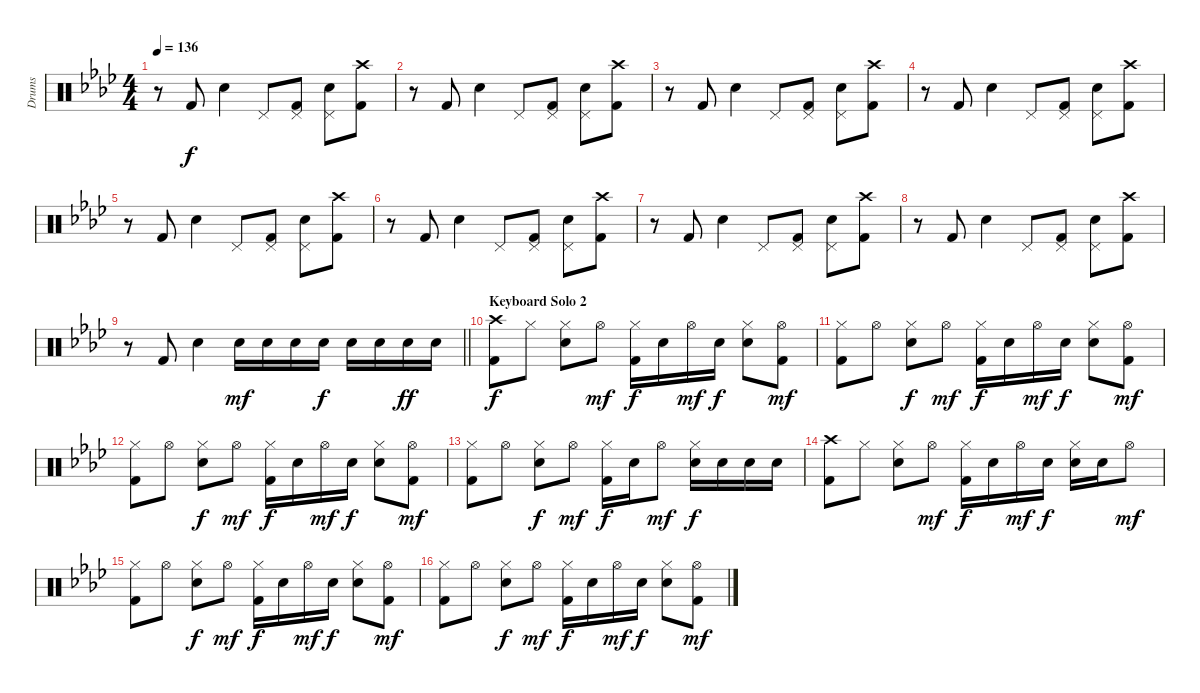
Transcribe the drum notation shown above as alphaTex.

\track ("Drums" "Drums") {instrument percussion}
\staff {score}
\articulation defaults
\ts (4 4)
\tempo 136
\clef neutral
\ks ab
r.8{dy f} "Kick (hit) 2".8 "Electric Snare (hit)".4 "Pedal Hi-Hat (hit)".8 ("Pedal Hi-Hat (hit)" "Kick (hit) 2").8 ("Pedal Hi-Hat (hit)" "Electric Snare (hit)").8 ("Crash high (hit)" "Kick (hit) 2").8 |
r.8 "Kick (hit) 2".8 "Electric Snare (hit)".4 "Pedal Hi-Hat (hit)".8 ("Pedal Hi-Hat (hit)" "Kick (hit) 2").8 ("Pedal Hi-Hat (hit)" "Electric Snare (hit)").8 ("Crash high (hit)" "Kick (hit) 2").8 |
r.8 "Kick (hit) 2".8 "Electric Snare (hit)".4 "Pedal Hi-Hat (hit)".8 ("Pedal Hi-Hat (hit)" "Kick (hit) 2").8 ("Pedal Hi-Hat (hit)" "Electric Snare (hit)").8 ("Crash high (hit)" "Kick (hit) 2").8 |
r.8 "Kick (hit) 2".8 "Electric Snare (hit)".4 "Pedal Hi-Hat (hit)".8 ("Pedal Hi-Hat (hit)" "Kick (hit) 2").8 ("Pedal Hi-Hat (hit)" "Electric Snare (hit)").8 ("Crash high (hit)" "Kick (hit) 2").8 |
r.8 "Kick (hit) 2".8 "Electric Snare (hit)".4 "Pedal Hi-Hat (hit)".8 ("Pedal Hi-Hat (hit)" "Kick (hit) 2").8 ("Pedal Hi-Hat (hit)" "Electric Snare (hit)").8 ("Crash high (hit)" "Kick (hit) 2").8 |
r.8 "Kick (hit) 2".8 "Electric Snare (hit)".4 "Pedal Hi-Hat (hit)".8 ("Pedal Hi-Hat (hit)" "Kick (hit) 2").8 ("Pedal Hi-Hat (hit)" "Electric Snare (hit)").8 ("Crash high (hit)" "Kick (hit) 2").8 |
r.8 "Kick (hit) 2".8 "Electric Snare (hit)".4 "Pedal Hi-Hat (hit)".8 ("Pedal Hi-Hat (hit)" "Kick (hit) 2").8 ("Pedal Hi-Hat (hit)" "Electric Snare (hit)").8 ("Crash high (hit)" "Kick (hit) 2").8 |
r.8 "Kick (hit) 2".8 "Electric Snare (hit)".4 "Pedal Hi-Hat (hit)".8 ("Pedal Hi-Hat (hit)" "Kick (hit) 2").8 ("Pedal Hi-Hat (hit)" "Electric Snare (hit)").8 ("Crash high (hit)" "Kick (hit) 2").8 |
\barLineRight lightlight
r.8 "Kick (hit) 2".8 "Electric Snare (hit)".4 "Electric Snare (hit)".16{dy mf} "Electric Snare (hit)".16 "Electric Snare (hit)".16 "Electric Snare (hit)".16{dy f} "Electric Snare (hit)".16 "Electric Snare (hit)".16 "Electric Snare (hit)".16{dy ff} "Electric Snare (hit)".16 |
\section ("" "Keyboard Solo 2")
("Crash high (hit)" "Kick (hit) 2").8{dy f} "Hi-Hat (closed)".8 ("Hi-Hat (closed)" "Electric Snare (hit)").8 "Hi-Hat (open)".8{dy mf} ("Hi-Hat (closed)" "Kick (hit) 2").16{dy f} "Electric Snare (hit)".16 "Hi-Hat (open)".16{dy mf} "Electric Snare (hit)".16{dy f} ("Hi-Hat (closed)" "Electric Snare (hit)").8 ("Hi-Hat (open)" "Kick (hit) 2").8{dy mf} |
("Hi-Hat (closed)" "Kick (hit) 2").8 "Hi-Hat (open)".8 ("Hi-Hat (closed)" "Electric Snare (hit)").8{dy f} "Hi-Hat (open)".8{dy mf} ("Hi-Hat (closed)" "Kick (hit) 2").16{dy f} "Electric Snare (hit)".16 "Hi-Hat (open)".16{dy mf} "Electric Snare (hit)".16{dy f} ("Hi-Hat (closed)" "Electric Snare (hit)").8 ("Hi-Hat (open)" "Kick (hit) 2").8{dy mf} |
("Hi-Hat (closed)" "Kick (hit) 2").8 "Hi-Hat (open)".8 ("Hi-Hat (closed)" "Electric Snare (hit)").8{dy f} "Hi-Hat (open)".8{dy mf} ("Hi-Hat (closed)" "Kick (hit) 2").16{dy f} "Electric Snare (hit)".16 "Hi-Hat (open)".16{dy mf} "Electric Snare (hit)".16{dy f} ("Hi-Hat (closed)" "Electric Snare (hit)").8 ("Hi-Hat (open)" "Kick (hit) 2").8{dy mf} |
("Hi-Hat (closed)" "Kick (hit) 2").8 "Hi-Hat (open)".8 ("Hi-Hat (closed)" "Electric Snare (hit)").8{dy f} "Hi-Hat (open)".8{dy mf} ("Hi-Hat (closed)" "Kick (hit) 2").16{dy f} "Electric Snare (hit)".16 "Hi-Hat (open)".8{dy mf} ("Hi-Hat (closed)" "Electric Snare (hit)").16{dy f} "Electric Snare (hit)".16 "Electric Snare (hit)".16 "Electric Snare (hit)".16 |
("Crash high (hit)" "Kick (hit) 2").8 "Hi-Hat (closed)".8 ("Hi-Hat (closed)" "Electric Snare (hit)").8 "Hi-Hat (open)".8{dy mf} ("Hi-Hat (closed)" "Kick (hit) 2").16{dy f} "Electric Snare (hit)".16 "Hi-Hat (open)".16{dy mf} "Electric Snare (hit)".16{dy f} ("Hi-Hat (closed)" "Electric Snare (hit)").16 "Electric Snare (hit)".16 "Hi-Hat (open)".8{dy mf} |
("Hi-Hat (closed)" "Kick (hit) 2").8 "Hi-Hat (open)".8 ("Hi-Hat (closed)" "Electric Snare (hit)").8{dy f} "Hi-Hat (open)".8{dy mf} ("Hi-Hat (closed)" "Kick (hit) 2").16{dy f} "Electric Snare (hit)".16 "Hi-Hat (open)".16{dy mf} "Electric Snare (hit)".16{dy f} ("Hi-Hat (closed)" "Electric Snare (hit)").8 ("Hi-Hat (open)" "Kick (hit) 2").8{dy mf} |
("Hi-Hat (closed)" "Kick (hit) 2").8 "Hi-Hat (open)".8 ("Hi-Hat (closed)" "Electric Snare (hit)").8{dy f} "Hi-Hat (open)".8{dy mf} ("Hi-Hat (closed)" "Kick (hit) 2").16{dy f} "Electric Snare (hit)".16 "Hi-Hat (open)".16{dy mf} "Electric Snare (hit)".16{dy f} ("Hi-Hat (closed)" "Electric Snare (hit)").8 ("Hi-Hat (open)" "Kick (hit) 2").8{dy mf}
